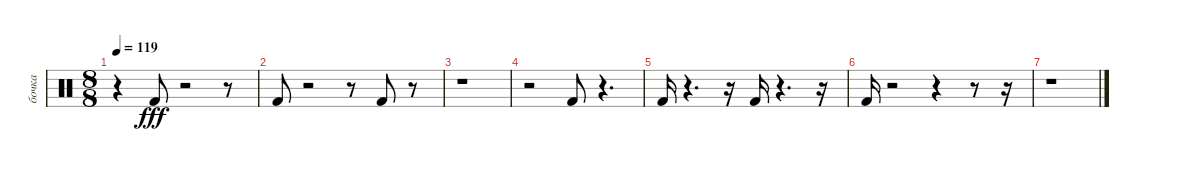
\track ("бочка" "бочка") {instrument percussion}
\staff {score}
\articulation defaults
\ts (8 8)
\tempo 119
\clef neutral
\ks c
r.4{dy fff} "Kick (hit) 2".8 r.2 r.8 |
"Kick (hit) 2".8 r.2 r.8 "Kick (hit) 2".8 r.8 |
r.1 |
r.2 "Kick (hit) 2".8 r.4{d} |
"Kick (hit) 2".16 r.4{d} r.16 "Kick (hit) 2".16 r.4{d} r.16 |
"Kick (hit) 2".16 r.2 r.4 r.8 r.16 |
r.1
